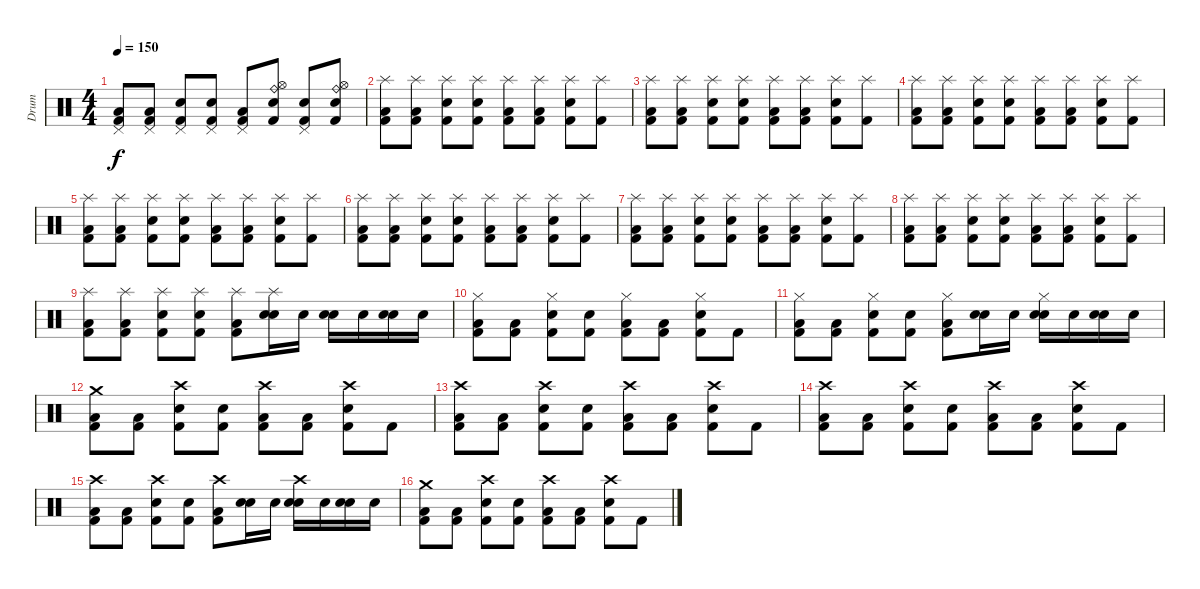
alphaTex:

\track ("Drum" "Drum") {instrument percussion}
\staff {score}
\articulation defaults
\ts (4 4)
\tempo 150
\clef neutral
\ks c
("Pedal Hi-Hat (hit)" "Low Floor Tom (hit)" "Kick (hit) 2").8{dy f} ("Pedal Hi-Hat (hit)" "Low Floor Tom (hit)" "Kick (hit) 2").8 ("Pedal Hi-Hat (hit)" "Snare (hit) 2" "Kick (hit) 2").8 ("Pedal Hi-Hat (hit)" "Snare (hit) 2" "Kick (hit) 2").8 ("Pedal Hi-Hat (hit)" "Low Floor Tom (hit)" "Kick (hit) 2").8 ("Ride (bell)" "Hi-Hat (open)" "Electric Snare (hit)" "Kick (hit) 2").8 ("Pedal Hi-Hat (hit)" "Snare (hit) 2" "Kick (hit) 2").8 ("Ride (bell)" "Hi-Hat (open)" "Electric Snare (hit)" "Kick (hit) 2").8 |
("Splash (hit)" "Low Floor Tom (hit)" "Kick (hit) 2").8 ("Splash (hit)" "Low Floor Tom (hit)" "Kick (hit) 2").8 ("Splash (hit)" "Snare (hit) 2" "Kick (hit) 2").8 ("Splash (hit)" "Snare (hit) 2" "Kick (hit) 2").8 ("Splash (hit)" "Low Floor Tom (hit)" "Kick (hit) 2").8 ("Splash (hit)" "Low Floor Tom (hit)" "Kick (hit) 2").8 ("Splash (hit)" "Snare (hit) 2" "Kick (hit) 2").8 ("Splash (hit)" "Kick (hit) 2").8 |
("Splash (hit)" "Low Floor Tom (hit)" "Kick (hit) 2").8 ("Splash (hit)" "Low Floor Tom (hit)" "Kick (hit) 2").8 ("Splash (hit)" "Snare (hit) 2" "Kick (hit) 2").8 ("Splash (hit)" "Snare (hit) 2" "Kick (hit) 2").8 ("Splash (hit)" "Low Floor Tom (hit)" "Kick (hit) 2").8 ("Splash (hit)" "Low Floor Tom (hit)" "Kick (hit) 2").8 ("Splash (hit)" "Snare (hit) 2" "Kick (hit) 2").8 ("Splash (hit)" "Kick (hit) 2").8 |
("Splash (hit)" "Low Floor Tom (hit)" "Kick (hit) 2").8 ("Splash (hit)" "Low Floor Tom (hit)" "Kick (hit) 2").8 ("Splash (hit)" "Snare (hit) 2" "Kick (hit) 2").8 ("Splash (hit)" "Snare (hit) 2" "Kick (hit) 2").8 ("Splash (hit)" "Low Floor Tom (hit)" "Kick (hit) 2").8 ("Splash (hit)" "Low Floor Tom (hit)" "Kick (hit) 2").8 ("Splash (hit)" "Snare (hit) 2" "Kick (hit) 2").8 ("Splash (hit)" "Kick (hit) 2").8 |
("Splash (hit)" "Low Floor Tom (hit)" "Kick (hit) 2").8 ("Splash (hit)" "Low Floor Tom (hit)" "Kick (hit) 2").8 ("Splash (hit)" "Snare (hit) 2" "Kick (hit) 2").8 ("Splash (hit)" "Snare (hit) 2" "Kick (hit) 2").8 ("Splash (hit)" "Low Floor Tom (hit)" "Kick (hit) 2").8 ("Splash (hit)" "Low Floor Tom (hit)" "Kick (hit) 2").8 ("Splash (hit)" "Snare (hit) 2" "Kick (hit) 2").8 ("Splash (hit)" "Kick (hit) 2").8 |
("Splash (hit)" "Low Floor Tom (hit)" "Kick (hit) 2").8 ("Splash (hit)" "Low Floor Tom (hit)" "Kick (hit) 2").8 ("Splash (hit)" "Snare (hit) 2" "Kick (hit) 2").8 ("Splash (hit)" "Snare (hit) 2" "Kick (hit) 2").8 ("Splash (hit)" "Low Floor Tom (hit)" "Kick (hit) 2").8 ("Splash (hit)" "Low Floor Tom (hit)" "Kick (hit) 2").8 ("Splash (hit)" "Snare (hit) 2" "Kick (hit) 2").8 ("Splash (hit)" "Kick (hit) 2").8 |
("Splash (hit)" "Low Floor Tom (hit)" "Kick (hit) 2").8 ("Splash (hit)" "Low Floor Tom (hit)" "Kick (hit) 2").8 ("Splash (hit)" "Snare (hit) 2" "Kick (hit) 2").8 ("Splash (hit)" "Snare (hit) 2" "Kick (hit) 2").8 ("Splash (hit)" "Low Floor Tom (hit)" "Kick (hit) 2").8 ("Splash (hit)" "Low Floor Tom (hit)" "Kick (hit) 2").8 ("Splash (hit)" "Snare (hit) 2" "Kick (hit) 2").8 ("Splash (hit)" "Kick (hit) 2").8 |
("Splash (hit)" "Low Floor Tom (hit)" "Kick (hit) 2").8 ("Splash (hit)" "Low Floor Tom (hit)" "Kick (hit) 2").8 ("Splash (hit)" "Snare (hit) 2" "Kick (hit) 2").8 ("Splash (hit)" "Snare (hit) 2" "Kick (hit) 2").8 ("Splash (hit)" "Low Floor Tom (hit)" "Kick (hit) 2").8 ("Splash (hit)" "Low Floor Tom (hit)" "Kick (hit) 2").8 ("Splash (hit)" "Snare (hit) 2" "Kick (hit) 2").8 ("Splash (hit)" "Kick (hit) 2").8 |
("Splash (hit)" "Low Floor Tom (hit)" "Kick (hit) 2").8 ("Splash (hit)" "Low Floor Tom (hit)" "Kick (hit) 2").8 ("Splash (hit)" "Snare (hit) 2" "Kick (hit) 2").8 ("Splash (hit)" "Snare (hit) 2" "Kick (hit) 2").8 ("Splash (hit)" "Low Floor Tom (hit)" "Kick (hit) 2").8 ("Splash (hit)" "Electric Snare (hit)" "Snare (hit) 2").16 "Electric Snare (hit)".16 ("Electric Snare (hit)" "Snare (hit) 2").16 "Electric Snare (hit)".16 ("Electric Snare (hit)" "Snare (hit) 2").16 "Electric Snare (hit)".16 |
("Hi-Hat (closed)" "Low Floor Tom (hit)" "Kick (hit) 2").8 ("Low Floor Tom (hit)" "Kick (hit) 2").8 ("Hi-Hat (closed)" "Snare (hit) 2" "Kick (hit) 2").8 ("Snare (hit) 2" "Kick (hit) 2").8 ("Hi-Hat (closed)" "Low Floor Tom (hit)" "Kick (hit) 2").8 ("Low Floor Tom (hit)" "Kick (hit) 2").8 ("Hi-Hat (closed)" "Snare (hit) 2" "Kick (hit) 2").8 "Kick (hit) 2".8 |
("Hi-Hat (closed)" "Low Floor Tom (hit)" "Kick (hit) 2").8 ("Low Floor Tom (hit)" "Kick (hit) 2").8 ("Hi-Hat (closed)" "Snare (hit) 2" "Kick (hit) 2").8 ("Snare (hit) 2" "Kick (hit) 2").8 ("Hi-Hat (closed)" "Low Floor Tom (hit)" "Kick (hit) 2").8 ("Electric Snare (hit)" "Snare (hit) 2").16 "Electric Snare (hit)".16 ("Hi-Hat (closed)" "Electric Snare (hit)" "Snare (hit) 2").16 "Electric Snare (hit)".16 ("Electric Snare (hit)" "Snare (hit) 2").16 "Electric Snare (hit)".16 |
("Crash medium (hit)" "Low Floor Tom (hit)" "Kick (hit) 2").8 ("Low Floor Tom (hit)" "Kick (hit) 2").8 ("Crash high (hit)" "Snare (hit) 2" "Kick (hit) 2").8 ("Snare (hit) 2" "Kick (hit) 2").8 ("Crash high (hit)" "Low Floor Tom (hit)" "Kick (hit) 2").8 ("Low Floor Tom (hit)" "Kick (hit) 2").8 ("Crash high (hit)" "Snare (hit) 2" "Kick (hit) 2").8 "Kick (hit) 2".8 |
("Crash high (hit)" "Low Floor Tom (hit)" "Kick (hit) 2").8 ("Low Floor Tom (hit)" "Kick (hit) 2").8 ("Crash high (hit)" "Snare (hit) 2" "Kick (hit) 2").8 ("Snare (hit) 2" "Kick (hit) 2").8 ("Crash high (hit)" "Low Floor Tom (hit)" "Kick (hit) 2").8 ("Low Floor Tom (hit)" "Kick (hit) 2").8 ("Crash high (hit)" "Snare (hit) 2" "Kick (hit) 2").8 "Kick (hit) 2".8 |
("Crash high (hit)" "Low Floor Tom (hit)" "Kick (hit) 2").8 ("Low Floor Tom (hit)" "Kick (hit) 2").8 ("Crash high (hit)" "Snare (hit) 2" "Kick (hit) 2").8 ("Snare (hit) 2" "Kick (hit) 2").8 ("Crash high (hit)" "Low Floor Tom (hit)" "Kick (hit) 2").8 ("Low Floor Tom (hit)" "Kick (hit) 2").8 ("Crash high (hit)" "Snare (hit) 2" "Kick (hit) 2").8 "Kick (hit) 2".8 |
("Crash high (hit)" "Low Floor Tom (hit)" "Kick (hit) 2").8 ("Low Floor Tom (hit)" "Kick (hit) 2").8 ("Crash high (hit)" "Snare (hit) 2" "Kick (hit) 2").8 ("Snare (hit) 2" "Kick (hit) 2").8 ("Crash high (hit)" "Low Floor Tom (hit)" "Kick (hit) 2").8 ("Electric Snare (hit)" "Snare (hit) 2").16 "Electric Snare (hit)".16 ("Crash high (hit)" "Electric Snare (hit)" "Snare (hit) 2").16 "Electric Snare (hit)".16 ("Electric Snare (hit)" "Snare (hit) 2").16 "Electric Snare (hit)".16 |
("Crash medium (hit)" "Low Floor Tom (hit)" "Kick (hit) 2").8 ("Low Floor Tom (hit)" "Kick (hit) 2").8 ("Crash high (hit)" "Snare (hit) 2" "Kick (hit) 2").8 ("Snare (hit) 2" "Kick (hit) 2").8 ("Crash high (hit)" "Low Floor Tom (hit)" "Kick (hit) 2").8 ("Low Floor Tom (hit)" "Kick (hit) 2").8 ("Crash high (hit)" "Snare (hit) 2" "Kick (hit) 2").8 "Kick (hit) 2".8
